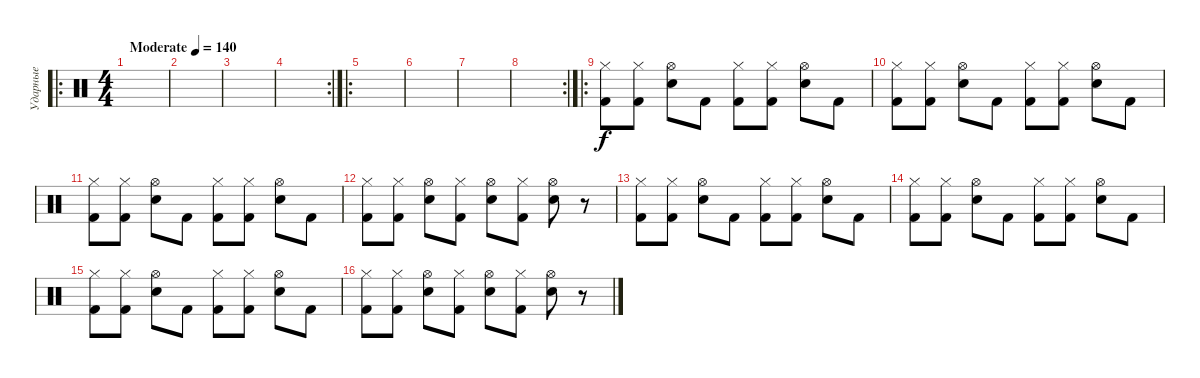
\track ("Ударные" "Ударные") {instrument percussion}
\staff {score}
\articulation defaults
\ro
\ts (4 4)
\tempo (140 "Moderate")
\clef neutral
\ks c
|
|
|
\rc 2
|
\ro
|
|
|
\rc 2
|
\ro
("Hi-Hat (closed)" "Kick (hit) 2").8 ("Hi-Hat (closed)" "Kick (hit) 2").8 ("Hi-Hat (open)" "Electric Snare (hit)").8 "Kick (hit) 2".8 ("Hi-Hat (closed)" "Kick (hit) 2").8 ("Hi-Hat (closed)" "Kick (hit) 2").8 ("Hi-Hat (open)" "Electric Snare (hit)").8 "Kick (hit) 2".8 |
("Hi-Hat (closed)" "Kick (hit) 2").8 ("Hi-Hat (closed)" "Kick (hit) 2").8 ("Hi-Hat (open)" "Electric Snare (hit)").8 "Kick (hit) 2".8 ("Hi-Hat (closed)" "Kick (hit) 2").8 ("Hi-Hat (closed)" "Kick (hit) 2").8 ("Hi-Hat (open)" "Electric Snare (hit)").8 "Kick (hit) 2".8 |
("Hi-Hat (closed)" "Kick (hit) 2").8 ("Hi-Hat (closed)" "Kick (hit) 2").8 ("Hi-Hat (open)" "Electric Snare (hit)").8 "Kick (hit) 2".8 ("Hi-Hat (closed)" "Kick (hit) 2").8 ("Hi-Hat (closed)" "Kick (hit) 2").8 ("Hi-Hat (open)" "Electric Snare (hit)").8 "Kick (hit) 2".8 |
("Hi-Hat (closed)" "Kick (hit) 2").8 ("Hi-Hat (closed)" "Kick (hit) 2").8 ("Hi-Hat (open)" "Electric Snare (hit)").8 ("Hi-Hat (closed)" "Kick (hit) 2").8 ("Hi-Hat (open)" "Electric Snare (hit)").8 ("Hi-Hat (closed)" "Kick (hit) 2").8 ("Hi-Hat (open)" "Electric Snare (hit)").8 r.8 |
("Hi-Hat (closed)" "Kick (hit) 2").8 ("Hi-Hat (closed)" "Kick (hit) 2").8 ("Hi-Hat (open)" "Electric Snare (hit)").8 "Kick (hit) 2".8 ("Hi-Hat (closed)" "Kick (hit) 2").8 ("Hi-Hat (closed)" "Kick (hit) 2").8 ("Hi-Hat (open)" "Electric Snare (hit)").8 "Kick (hit) 2".8 |
("Hi-Hat (closed)" "Kick (hit) 2").8 ("Hi-Hat (closed)" "Kick (hit) 2").8 ("Hi-Hat (open)" "Electric Snare (hit)").8 "Kick (hit) 2".8 ("Hi-Hat (closed)" "Kick (hit) 2").8 ("Hi-Hat (closed)" "Kick (hit) 2").8 ("Hi-Hat (open)" "Electric Snare (hit)").8 "Kick (hit) 2".8 |
("Hi-Hat (closed)" "Kick (hit) 2").8 ("Hi-Hat (closed)" "Kick (hit) 2").8 ("Hi-Hat (open)" "Electric Snare (hit)").8 "Kick (hit) 2".8 ("Hi-Hat (closed)" "Kick (hit) 2").8 ("Hi-Hat (closed)" "Kick (hit) 2").8 ("Hi-Hat (open)" "Electric Snare (hit)").8 "Kick (hit) 2".8 |
("Hi-Hat (closed)" "Kick (hit) 2").8 ("Hi-Hat (closed)" "Kick (hit) 2").8 ("Hi-Hat (open)" "Electric Snare (hit)").8 ("Hi-Hat (closed)" "Kick (hit) 2").8 ("Hi-Hat (open)" "Electric Snare (hit)").8 ("Hi-Hat (closed)" "Kick (hit) 2").8 ("Hi-Hat (open)" "Electric Snare (hit)").8 r.8
